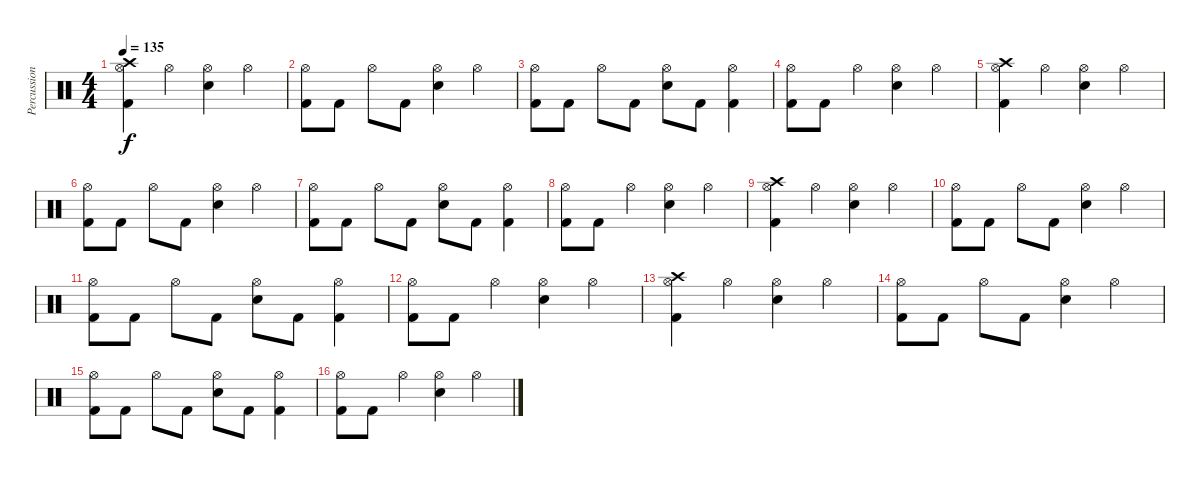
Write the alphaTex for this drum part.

\track ("Percussion" "Percussion") {instrument percussion}
\staff {score}
\articulation defaults
\ts (4 4)
\tempo 135
\clef neutral
\ks c
("Kick (hit) 2" "Hi-Hat (open)" "Crash high (hit)").4{dy f} "Hi-Hat (open)".4 ("Electric Snare (hit)" "Hi-Hat (open)").4 "Hi-Hat (open)".4 |
("Kick (hit) 2" "Hi-Hat (open)").8 "Kick (hit) 2".8 "Hi-Hat (open)".8 "Kick (hit) 2".8 ("Electric Snare (hit)" "Hi-Hat (open)").4 "Hi-Hat (open)".4 |
("Kick (hit) 2" "Hi-Hat (open)").8 "Kick (hit) 2".8 "Hi-Hat (open)".8 "Kick (hit) 2".8 ("Electric Snare (hit)" "Hi-Hat (open)").8 "Kick (hit) 2".8 ("Kick (hit) 2" "Hi-Hat (open)").4 |
("Kick (hit) 2" "Hi-Hat (open)").8 "Kick (hit) 2".8 "Hi-Hat (open)".4 ("Electric Snare (hit)" "Hi-Hat (open)").4 "Hi-Hat (open)".4 |
("Kick (hit) 2" "Hi-Hat (open)" "Crash high (hit)").4 "Hi-Hat (open)".4 ("Electric Snare (hit)" "Hi-Hat (open)").4 "Hi-Hat (open)".4 |
("Kick (hit) 2" "Hi-Hat (open)").8 "Kick (hit) 2".8 "Hi-Hat (open)".8 "Kick (hit) 2".8 ("Electric Snare (hit)" "Hi-Hat (open)").4 "Hi-Hat (open)".4 |
("Kick (hit) 2" "Hi-Hat (open)").8 "Kick (hit) 2".8 "Hi-Hat (open)".8 "Kick (hit) 2".8 ("Electric Snare (hit)" "Hi-Hat (open)").8 "Kick (hit) 2".8 ("Kick (hit) 2" "Hi-Hat (open)").4 |
("Kick (hit) 2" "Hi-Hat (open)").8 "Kick (hit) 2".8 "Hi-Hat (open)".4 ("Electric Snare (hit)" "Hi-Hat (open)").4 "Hi-Hat (open)".4 |
("Kick (hit) 2" "Hi-Hat (open)" "Crash high (hit)").4 "Hi-Hat (open)".4 ("Electric Snare (hit)" "Hi-Hat (open)").4 "Hi-Hat (open)".4 |
("Kick (hit) 2" "Hi-Hat (open)").8 "Kick (hit) 2".8 "Hi-Hat (open)".8 "Kick (hit) 2".8 ("Electric Snare (hit)" "Hi-Hat (open)").4 "Hi-Hat (open)".4 |
("Kick (hit) 2" "Hi-Hat (open)").8 "Kick (hit) 2".8 "Hi-Hat (open)".8 "Kick (hit) 2".8 ("Electric Snare (hit)" "Hi-Hat (open)").8 "Kick (hit) 2".8 ("Kick (hit) 2" "Hi-Hat (open)").4 |
("Kick (hit) 2" "Hi-Hat (open)").8 "Kick (hit) 2".8 "Hi-Hat (open)".4 ("Electric Snare (hit)" "Hi-Hat (open)").4 "Hi-Hat (open)".4 |
("Kick (hit) 2" "Hi-Hat (open)" "Crash high (hit)").4 "Hi-Hat (open)".4 ("Electric Snare (hit)" "Hi-Hat (open)").4 "Hi-Hat (open)".4 |
("Kick (hit) 2" "Hi-Hat (open)").8 "Kick (hit) 2".8 "Hi-Hat (open)".8 "Kick (hit) 2".8 ("Electric Snare (hit)" "Hi-Hat (open)").4 "Hi-Hat (open)".4 |
("Kick (hit) 2" "Hi-Hat (open)").8 "Kick (hit) 2".8 "Hi-Hat (open)".8 "Kick (hit) 2".8 ("Electric Snare (hit)" "Hi-Hat (open)").8 "Kick (hit) 2".8 ("Kick (hit) 2" "Hi-Hat (open)").4 |
("Kick (hit) 2" "Hi-Hat (open)").8 "Kick (hit) 2".8 "Hi-Hat (open)".4 ("Electric Snare (hit)" "Hi-Hat (open)").4 "Hi-Hat (open)".4
